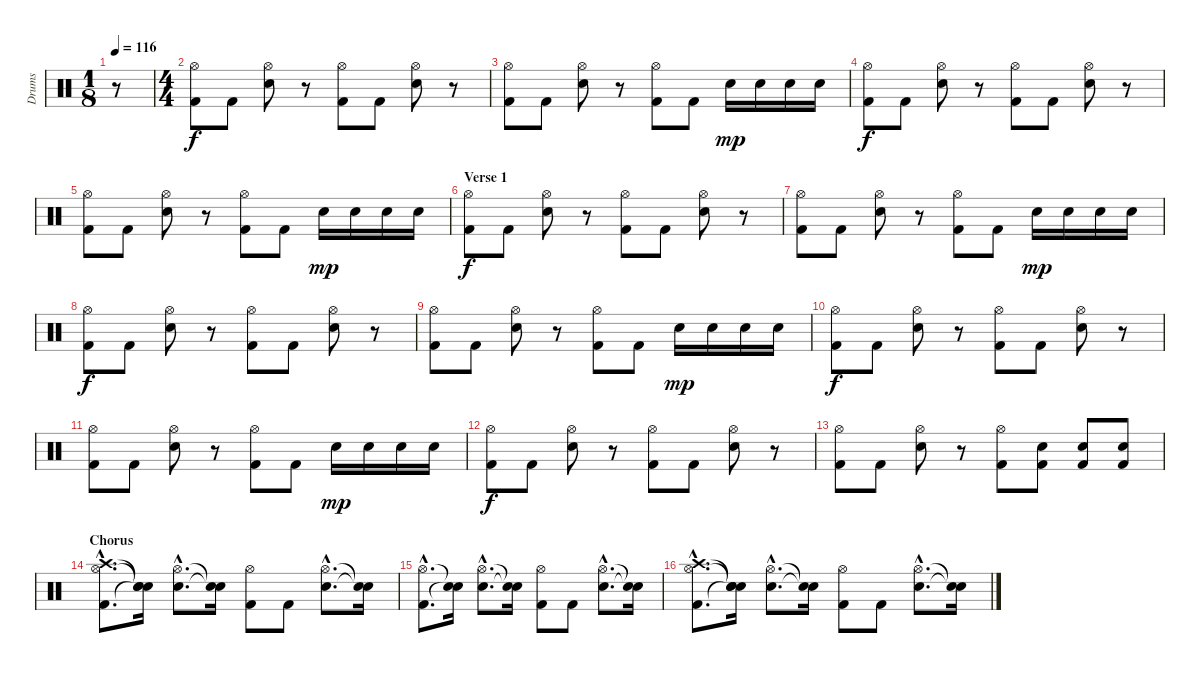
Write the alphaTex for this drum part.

\track ("Drums" "Drums") {instrument percussion}
\staff {score}
\articulation defaults
\ts (1 8)
\tempo 116
\clef neutral
\ks c
r.8{dy f} |
\ts (4 4)
("Kick (hit) 2" "Hi-Hat (open)").8 "Kick (hit) 2".8 ("Snare (hit) 2" "Hi-Hat (open)").8 r.8 ("Kick (hit) 2" "Hi-Hat (open)").8 "Kick (hit) 2".8 ("Snare (hit) 2" "Hi-Hat (open)").8 r.8 |
("Kick (hit) 2" "Hi-Hat (open)").8 "Kick (hit) 2".8 ("Snare (hit) 2" "Hi-Hat (open)").8 r.8 ("Kick (hit) 2" "Hi-Hat (open)").8 "Kick (hit) 2".8 "Snare (hit) 2".16{dy mp} "Snare (hit) 2".16 "Snare (hit) 2".16 "Snare (hit) 2".16 |
("Kick (hit) 2" "Hi-Hat (open)").8{dy f} "Kick (hit) 2".8 ("Snare (hit) 2" "Hi-Hat (open)").8 r.8 ("Kick (hit) 2" "Hi-Hat (open)").8 "Kick (hit) 2".8 ("Snare (hit) 2" "Hi-Hat (open)").8 r.8 |
("Kick (hit) 2" "Hi-Hat (open)").8 "Kick (hit) 2".8 ("Snare (hit) 2" "Hi-Hat (open)").8 r.8 ("Kick (hit) 2" "Hi-Hat (open)").8 "Kick (hit) 2".8 "Snare (hit) 2".16{dy mp} "Snare (hit) 2".16 "Snare (hit) 2".16 "Snare (hit) 2".16 |
\section ("" "Verse 1")
("Kick (hit) 2" "Hi-Hat (open)").8{dy f} "Kick (hit) 2".8 ("Snare (hit) 2" "Hi-Hat (open)").8 r.8 ("Kick (hit) 2" "Hi-Hat (open)").8 "Kick (hit) 2".8 ("Snare (hit) 2" "Hi-Hat (open)").8 r.8 |
("Kick (hit) 2" "Hi-Hat (open)").8 "Kick (hit) 2".8 ("Snare (hit) 2" "Hi-Hat (open)").8 r.8 ("Kick (hit) 2" "Hi-Hat (open)").8 "Kick (hit) 2".8 "Snare (hit) 2".16{dy mp} "Snare (hit) 2".16 "Snare (hit) 2".16 "Snare (hit) 2".16 |
("Kick (hit) 2" "Hi-Hat (open)").8{dy f} "Kick (hit) 2".8 ("Snare (hit) 2" "Hi-Hat (open)").8 r.8 ("Kick (hit) 2" "Hi-Hat (open)").8 "Kick (hit) 2".8 ("Snare (hit) 2" "Hi-Hat (open)").8 r.8 |
("Kick (hit) 2" "Hi-Hat (open)").8 "Kick (hit) 2".8 ("Snare (hit) 2" "Hi-Hat (open)").8 r.8 ("Kick (hit) 2" "Hi-Hat (open)").8 "Kick (hit) 2".8 "Snare (hit) 2".16{dy mp} "Snare (hit) 2".16 "Snare (hit) 2".16 "Snare (hit) 2".16 |
("Kick (hit) 2" "Hi-Hat (open)").8{dy f} "Kick (hit) 2".8 ("Snare (hit) 2" "Hi-Hat (open)").8 r.8 ("Kick (hit) 2" "Hi-Hat (open)").8 "Kick (hit) 2".8 ("Snare (hit) 2" "Hi-Hat (open)").8 r.8 |
("Kick (hit) 2" "Hi-Hat (open)").8 "Kick (hit) 2".8 ("Snare (hit) 2" "Hi-Hat (open)").8 r.8 ("Kick (hit) 2" "Hi-Hat (open)").8 "Kick (hit) 2".8 "Snare (hit) 2".16{dy mp} "Snare (hit) 2".16 "Snare (hit) 2".16 "Snare (hit) 2".16 |
("Kick (hit) 2" "Hi-Hat (open)").8{dy f} "Kick (hit) 2".8 ("Snare (hit) 2" "Hi-Hat (open)").8 r.8 ("Kick (hit) 2" "Hi-Hat (open)").8 "Kick (hit) 2".8 ("Snare (hit) 2" "Hi-Hat (open)").8 r.8 |
("Kick (hit) 2" "Hi-Hat (open)").8 "Kick (hit) 2".8 ("Snare (hit) 2" "Hi-Hat (open)").8 r.8 ("Kick (hit) 2" "Hi-Hat (open)").8 ("Kick (hit) 2" "Snare (hit) 2").8 ("Kick (hit) 2" "Snare (hit) 2").8 ("Kick (hit) 2" "Snare (hit) 2").8 |
\section ("" "Chorus")
("Kick (hit) 2"{hac} "Hi-Hat (open)"{hac} "Crash high (hit)"{hac}).8{d} ("Snare (hit)"{t} "Snare (hit)"{t} "Snare (hit)"{t}).16 ("Snare (hit) 2"{hac} "Hi-Hat (open)"{hac}).8{d} ("Snare (hit)"{t} "Snare (hit)"{t}).16 ("Kick (hit) 2" "Hi-Hat (open)").8 "Kick (hit) 2".8 ("Snare (hit) 2"{hac} "Hi-Hat (open)"{hac}).8{d} ("Snare (hit)"{t} "Snare (hit)"{t}).16 |
("Kick (hit) 2"{hac} "Hi-Hat (open)"{hac}).8{d} ("Snare (hit)"{t} "Snare (hit)"{t}).16 ("Snare (hit) 2"{hac} "Hi-Hat (open)"{hac}).8{d} ("Snare (hit)"{t} "Snare (hit)"{t}).16 ("Kick (hit) 2" "Hi-Hat (open)").8 "Kick (hit) 2".8 ("Snare (hit) 2"{hac} "Hi-Hat (open)"{hac}).8{d} ("Snare (hit)"{t} "Snare (hit)"{t}).16 |
("Kick (hit) 2"{hac} "Hi-Hat (open)"{hac} "Crash high (hit)"{hac}).8{d} ("Snare (hit)"{t} "Snare (hit)"{t} "Snare (hit)"{t}).16 ("Snare (hit) 2"{hac} "Hi-Hat (open)"{hac}).8{d} ("Snare (hit)"{t} "Snare (hit)"{t}).16 ("Kick (hit) 2" "Hi-Hat (open)").8 "Kick (hit) 2".8 ("Snare (hit) 2"{hac} "Hi-Hat (open)"{hac}).8{d} ("Snare (hit)"{t} "Snare (hit)"{t}).16
